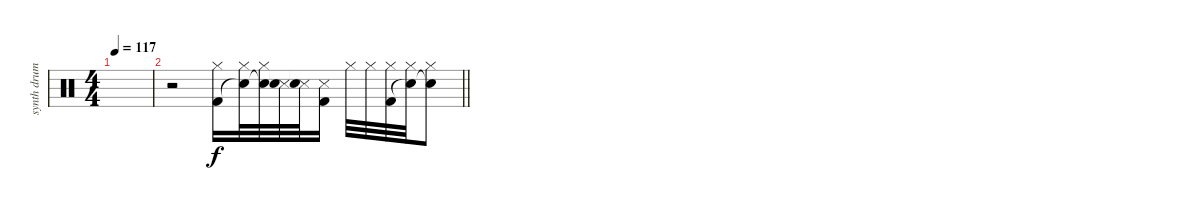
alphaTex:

\track ("synth drums" "synth drum") {instrument percussion}
\staff {score}
\articulation defaults
\ts (4 4)
\tempo 117
\clef neutral
\ks c
|
\barLineRight lightlight
r.2 ("Hi-Hat (closed)" "Kick (hit) 2").16{volume 10} ("Hi-Hat (closed)" "Snare (hit)"{t}).32 ("Hi-Hat (closed)" "Snare (hit)"{t}).32 ("Metronome (hit)" "Snare (hit)"{t}).32 ("Metronome (hit)" "Snare (hit)"{t}).32 ("Metronome (hit)" "Kick (hit) 2").16 "Hi-Hat (closed)".32 "Hi-Hat (closed)".32 ("Hi-Hat (closed)" "Kick (hit) 2").32 ("Hi-Hat (closed)" "Snare (hit)"{t}).32 ("Hi-Hat (closed)" "Snare (hit)"{t}).8
